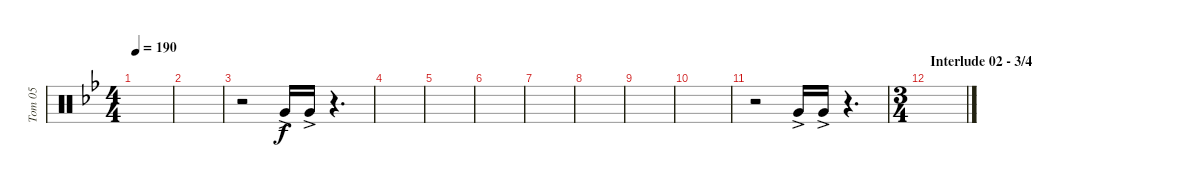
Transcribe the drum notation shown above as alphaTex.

\track ("Tom 05" "Tom 05") {instrument percussion}
\staff {score}
\articulation defaults
\ts (4 4)
\tempo 190
\clef neutral
\ks bb
|
|
r.2 "Very Low Tom (hit)"{ac}.16 "Very Low Tom (hit)"{ac}.16 r.4{d} |
|
|
|
|
|
|
|
r.2 "Very Low Tom (hit)"{ac}.16 "Very Low Tom (hit)"{ac}.16 r.4{d} |
\ts (3 4)
\section ("" "Interlude 02 - 3/4")
